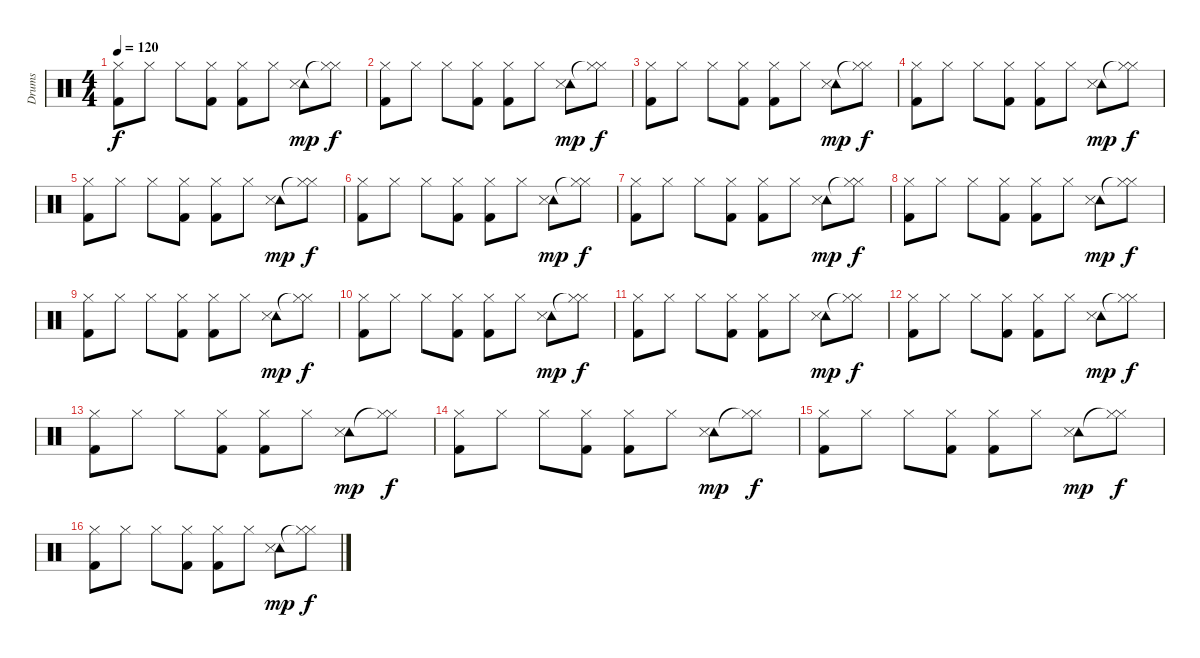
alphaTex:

\track ("Drums" "Drums") {instrument percussion}
\staff {score}
\articulation defaults
\ts (4 4)
\tempo 120
\clef neutral
\ks c
("Hi-Hat (closed)" "Kick (hit) 2").8{dy f} "Hi-Hat (closed)".8 "Hi-Hat (closed)".8 ("Hi-Hat (closed)" "Kick (hit) 2").8 ("Hi-Hat (closed)" "Kick (hit) 2").8 "Hi-Hat (closed)".8 ("Tambourine (hit)" "Snare (side stick) 3").8{dy mp} ("Hi-Hat (closed)"{t} "Hi-Hat (closed)").8{dy f} |
("Hi-Hat (closed)" "Kick (hit) 2").8 "Hi-Hat (closed)".8 "Hi-Hat (closed)".8 ("Hi-Hat (closed)" "Kick (hit) 2").8 ("Hi-Hat (closed)" "Kick (hit) 2").8 "Hi-Hat (closed)".8 ("Tambourine (hit)" "Snare (side stick) 3").8{dy mp} ("Hi-Hat (closed)"{t} "Hi-Hat (closed)").8{dy f} |
("Hi-Hat (closed)" "Kick (hit) 2").8 "Hi-Hat (closed)".8 "Hi-Hat (closed)".8 ("Hi-Hat (closed)" "Kick (hit) 2").8 ("Hi-Hat (closed)" "Kick (hit) 2").8 "Hi-Hat (closed)".8 ("Tambourine (hit)" "Snare (side stick) 3").8{dy mp} ("Hi-Hat (closed)"{t} "Hi-Hat (closed)").8{dy f} |
("Hi-Hat (closed)" "Kick (hit) 2").8 "Hi-Hat (closed)".8 "Hi-Hat (closed)".8 ("Hi-Hat (closed)" "Kick (hit) 2").8 ("Hi-Hat (closed)" "Kick (hit) 2").8 "Hi-Hat (closed)".8 ("Tambourine (hit)" "Snare (side stick) 3").8{dy mp} ("Hi-Hat (closed)"{t} "Hi-Hat (closed)").8{dy f} |
("Hi-Hat (closed)" "Kick (hit) 2").8 "Hi-Hat (closed)".8 "Hi-Hat (closed)".8 ("Hi-Hat (closed)" "Kick (hit) 2").8 ("Hi-Hat (closed)" "Kick (hit) 2").8 "Hi-Hat (closed)".8 ("Tambourine (hit)" "Snare (side stick) 3").8{dy mp} ("Hi-Hat (closed)"{t} "Hi-Hat (closed)").8{dy f} |
("Hi-Hat (closed)" "Kick (hit) 2").8 "Hi-Hat (closed)".8 "Hi-Hat (closed)".8 ("Hi-Hat (closed)" "Kick (hit) 2").8 ("Hi-Hat (closed)" "Kick (hit) 2").8 "Hi-Hat (closed)".8 ("Tambourine (hit)" "Snare (side stick) 3").8{dy mp} ("Hi-Hat (closed)"{t} "Hi-Hat (closed)").8{dy f} |
("Hi-Hat (closed)" "Kick (hit) 2").8 "Hi-Hat (closed)".8 "Hi-Hat (closed)".8 ("Hi-Hat (closed)" "Kick (hit) 2").8 ("Hi-Hat (closed)" "Kick (hit) 2").8 "Hi-Hat (closed)".8 ("Tambourine (hit)" "Snare (side stick) 3").8{dy mp} ("Hi-Hat (closed)"{t} "Hi-Hat (closed)").8{dy f} |
("Hi-Hat (closed)" "Kick (hit) 2").8 "Hi-Hat (closed)".8 "Hi-Hat (closed)".8 ("Hi-Hat (closed)" "Kick (hit) 2").8 ("Hi-Hat (closed)" "Kick (hit) 2").8 "Hi-Hat (closed)".8 ("Tambourine (hit)" "Snare (side stick) 3").8{dy mp} ("Hi-Hat (closed)"{t} "Hi-Hat (closed)").8{dy f} |
("Hi-Hat (closed)" "Kick (hit) 2").8 "Hi-Hat (closed)".8 "Hi-Hat (closed)".8 ("Hi-Hat (closed)" "Kick (hit) 2").8 ("Hi-Hat (closed)" "Kick (hit) 2").8 "Hi-Hat (closed)".8 ("Tambourine (hit)" "Snare (side stick) 3").8{dy mp} ("Hi-Hat (closed)"{t} "Hi-Hat (closed)").8{dy f} |
("Hi-Hat (closed)" "Kick (hit) 2").8 "Hi-Hat (closed)".8 "Hi-Hat (closed)".8 ("Hi-Hat (closed)" "Kick (hit) 2").8 ("Hi-Hat (closed)" "Kick (hit) 2").8 "Hi-Hat (closed)".8 ("Tambourine (hit)" "Snare (side stick) 3").8{dy mp} ("Hi-Hat (closed)"{t} "Hi-Hat (closed)").8{dy f} |
("Hi-Hat (closed)" "Kick (hit) 2").8 "Hi-Hat (closed)".8 "Hi-Hat (closed)".8 ("Hi-Hat (closed)" "Kick (hit) 2").8 ("Hi-Hat (closed)" "Kick (hit) 2").8 "Hi-Hat (closed)".8 ("Tambourine (hit)" "Snare (side stick) 3").8{dy mp} ("Hi-Hat (closed)"{t} "Hi-Hat (closed)").8{dy f} |
("Hi-Hat (closed)" "Kick (hit) 2").8 "Hi-Hat (closed)".8 "Hi-Hat (closed)".8 ("Hi-Hat (closed)" "Kick (hit) 2").8 ("Hi-Hat (closed)" "Kick (hit) 2").8 "Hi-Hat (closed)".8 ("Tambourine (hit)" "Snare (side stick) 3").8{dy mp} ("Hi-Hat (closed)"{t} "Hi-Hat (closed)").8{dy f} |
("Hi-Hat (closed)" "Kick (hit) 2").8 "Hi-Hat (closed)".8 "Hi-Hat (closed)".8 ("Hi-Hat (closed)" "Kick (hit) 2").8 ("Hi-Hat (closed)" "Kick (hit) 2").8 "Hi-Hat (closed)".8 ("Tambourine (hit)" "Snare (side stick) 3").8{dy mp} ("Hi-Hat (closed)"{t} "Hi-Hat (closed)").8{dy f} |
("Hi-Hat (closed)" "Kick (hit) 2").8 "Hi-Hat (closed)".8 "Hi-Hat (closed)".8 ("Hi-Hat (closed)" "Kick (hit) 2").8 ("Hi-Hat (closed)" "Kick (hit) 2").8 "Hi-Hat (closed)".8 ("Tambourine (hit)" "Snare (side stick) 3").8{dy mp} ("Hi-Hat (closed)"{t} "Hi-Hat (closed)").8{dy f} |
("Hi-Hat (closed)" "Kick (hit) 2").8 "Hi-Hat (closed)".8 "Hi-Hat (closed)".8 ("Hi-Hat (closed)" "Kick (hit) 2").8 ("Hi-Hat (closed)" "Kick (hit) 2").8 "Hi-Hat (closed)".8 ("Tambourine (hit)" "Snare (side stick) 3").8{dy mp} ("Hi-Hat (closed)"{t} "Hi-Hat (closed)").8{dy f} |
("Hi-Hat (closed)" "Kick (hit) 2").8 "Hi-Hat (closed)".8 "Hi-Hat (closed)".8 ("Hi-Hat (closed)" "Kick (hit) 2").8 ("Hi-Hat (closed)" "Kick (hit) 2").8 "Hi-Hat (closed)".8 ("Tambourine (hit)" "Snare (side stick) 3").8{dy mp} ("Hi-Hat (closed)"{t} "Hi-Hat (closed)").8{dy f}
